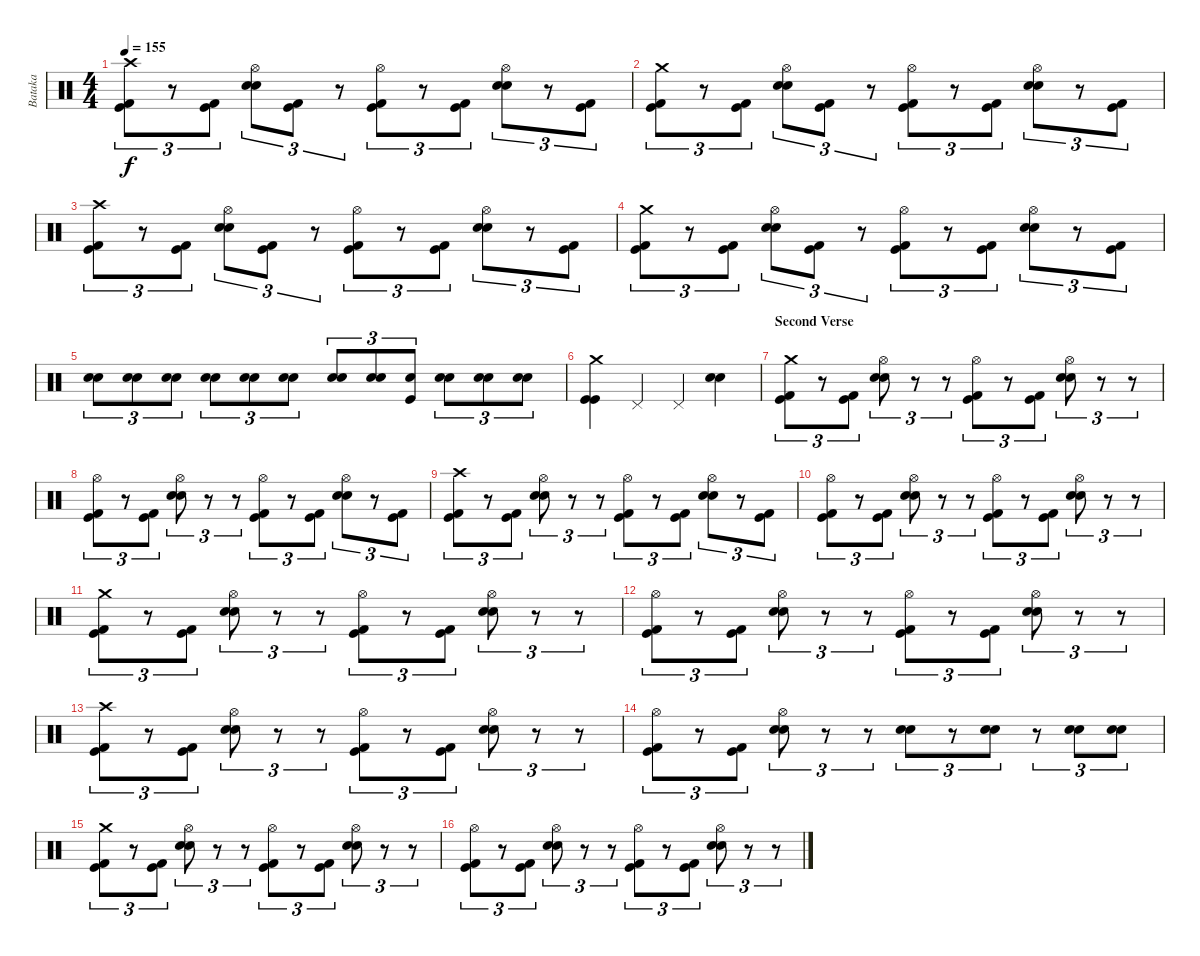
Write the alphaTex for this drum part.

\track ("Bataka" "Bataka") {instrument percussion}
\staff {score}
\articulation defaults
\ts (4 4)
\tempo 155
\clef neutral
\ks c
("Crash high (hit)" "Kick (hit) 2" "Kick (hit)").8{tu (3 2) dy f} r.8{tu (3 2)} ("Kick (hit) 2" "Kick (hit)").8{tu (3 2)} ("Hi-Hat (open)" "Snare (hit) 2" "Snare (hit) 2").8{tu (3 2)} ("Kick (hit) 2" "Kick (hit)").8{tu (3 2)} r.8{tu (3 2)} ("Hi-Hat (open)" "Kick (hit) 2" "Kick (hit)").8{tu (3 2)} r.8{tu (3 2)} ("Kick (hit) 2" "Kick (hit)").8{tu (3 2)} ("Hi-Hat (open)" "Snare (hit) 2" "Snare (hit) 2").8{tu (3 2)} r.8{tu (3 2)} ("Kick (hit) 2" "Kick (hit)").8{tu (3 2)} |
("Crash medium (hit)" "Kick (hit) 2" "Kick (hit)").8{tu (3 2)} r.8{tu (3 2)} ("Kick (hit) 2" "Kick (hit)").8{tu (3 2)} ("Hi-Hat (open)" "Snare (hit) 2" "Snare (hit) 2").8{tu (3 2)} ("Kick (hit) 2" "Kick (hit)").8{tu (3 2)} r.8{tu (3 2)} ("Hi-Hat (open)" "Kick (hit) 2" "Kick (hit)").8{tu (3 2)} r.8{tu (3 2)} ("Kick (hit) 2" "Kick (hit)").8{tu (3 2)} ("Hi-Hat (open)" "Snare (hit) 2" "Snare (hit) 2").8{tu (3 2)} r.8{tu (3 2)} ("Kick (hit) 2" "Kick (hit)").8{tu (3 2)} |
("Crash high (hit)" "Kick (hit) 2" "Kick (hit)").8{tu (3 2)} r.8{tu (3 2)} ("Kick (hit) 2" "Kick (hit)").8{tu (3 2)} ("Hi-Hat (open)" "Snare (hit) 2" "Snare (hit) 2").8{tu (3 2)} ("Kick (hit) 2" "Kick (hit)").8{tu (3 2)} r.8{tu (3 2)} ("Hi-Hat (open)" "Kick (hit) 2" "Kick (hit)").8{tu (3 2)} r.8{tu (3 2)} ("Kick (hit) 2" "Kick (hit)").8{tu (3 2)} ("Hi-Hat (open)" "Snare (hit) 2" "Snare (hit) 2").8{tu (3 2)} r.8{tu (3 2)} ("Kick (hit) 2" "Kick (hit)").8{tu (3 2)} |
("Crash medium (hit)" "Kick (hit) 2" "Kick (hit)").8{tu (3 2)} r.8{tu (3 2)} ("Kick (hit) 2" "Kick (hit)").8{tu (3 2)} ("Hi-Hat (open)" "Snare (hit) 2" "Snare (hit) 2").8{tu (3 2)} ("Kick (hit) 2" "Kick (hit)").8{tu (3 2)} r.8{tu (3 2)} ("Hi-Hat (open)" "Kick (hit) 2" "Kick (hit)").8{tu (3 2)} r.8{tu (3 2)} ("Kick (hit) 2" "Kick (hit)").8{tu (3 2)} ("Hi-Hat (open)" "Snare (hit) 2" "Snare (hit) 2").8{tu (3 2)} r.8{tu (3 2)} ("Kick (hit) 2" "Kick (hit)").8{tu (3 2)} |
("Snare (hit) 2" "Snare (hit) 2").8{tu (3 2)} ("Snare (hit) 2" "Snare (hit) 2").8{tu (3 2)} ("Snare (hit) 2" "Snare (hit) 2").8{tu (3 2)} ("Snare (hit) 2" "Snare (hit) 2").8{tu (3 2)} ("Snare (hit) 2" "Snare (hit) 2").8{tu (3 2)} ("Snare (hit) 2" "Snare (hit) 2").8{tu (3 2)} ("Snare (hit) 2" "Snare (hit) 2").8{tu (3 2)} ("Snare (hit) 2" "Snare (hit) 2").8{tu (3 2)} ("Snare (hit) 2" "Kick (hit)").8{tu (3 2)} ("Snare (hit) 2" "Snare (hit) 2").8{tu (3 2)} ("Snare (hit) 2" "Snare (hit) 2").8{tu (3 2)} ("Snare (hit) 2" "Snare (hit) 2").8{tu (3 2)} |
("Crash medium (hit)" "Kick (hit)" "Kick (hit)").4 "Pedal Hi-Hat (hit)".4 "Pedal Hi-Hat (hit)".4 ("Snare (hit) 2" "Snare (hit) 2").4 |
\section ("" "Second Verse")
("Crash medium (hit)" "Kick (hit) 2" "Kick (hit)").8{tu (3 2)} r.8{tu (3 2)} ("Kick (hit) 2" "Kick (hit)").8{tu (3 2)} ("Hi-Hat (open)" "Snare (hit) 2" "Snare (hit) 2").8{tu (3 2)} r.8{tu (3 2)} r.8{tu (3 2)} ("Hi-Hat (open)" "Kick (hit) 2" "Kick (hit)").8{tu (3 2)} r.8{tu (3 2)} ("Kick (hit) 2" "Kick (hit)").8{tu (3 2)} ("Hi-Hat (open)" "Snare (hit) 2" "Snare (hit) 2").8{tu (3 2)} r.8{tu (3 2)} r.8{tu (3 2)} |
("Hi-Hat (open)" "Kick (hit) 2" "Kick (hit)").8{tu (3 2)} r.8{tu (3 2)} ("Kick (hit) 2" "Kick (hit)").8{tu (3 2)} ("Hi-Hat (open)" "Snare (hit) 2" "Snare (hit) 2").8{tu (3 2)} r.8{tu (3 2)} r.8{tu (3 2)} ("Hi-Hat (open)" "Kick (hit) 2" "Kick (hit)").8{tu (3 2)} r.8{tu (3 2)} ("Kick (hit) 2" "Kick (hit)").8{tu (3 2)} ("Hi-Hat (open)" "Snare (hit) 2" "Snare (hit) 2").8{tu (3 2)} r.8{tu (3 2)} ("Kick (hit) 2" "Kick (hit)").8{tu (3 2)} |
("Crash high (hit)" "Kick (hit) 2" "Kick (hit)").8{tu (3 2)} r.8{tu (3 2)} ("Kick (hit) 2" "Kick (hit)").8{tu (3 2)} ("Hi-Hat (open)" "Snare (hit) 2" "Snare (hit) 2").8{tu (3 2)} r.8{tu (3 2)} r.8{tu (3 2)} ("Hi-Hat (open)" "Kick (hit) 2" "Kick (hit)").8{tu (3 2)} r.8{tu (3 2)} ("Kick (hit) 2" "Kick (hit)").8{tu (3 2)} ("Hi-Hat (open)" "Snare (hit) 2" "Snare (hit) 2").8{tu (3 2)} r.8{tu (3 2)} ("Kick (hit) 2" "Kick (hit)").8{tu (3 2)} |
("Hi-Hat (open)" "Kick (hit) 2" "Kick (hit)").8{tu (3 2)} r.8{tu (3 2)} ("Kick (hit) 2" "Kick (hit)").8{tu (3 2)} ("Hi-Hat (open)" "Snare (hit) 2" "Snare (hit) 2").8{tu (3 2)} r.8{tu (3 2)} r.8{tu (3 2)} ("Hi-Hat (open)" "Kick (hit) 2" "Kick (hit)").8{tu (3 2)} r.8{tu (3 2)} ("Kick (hit) 2" "Kick (hit)").8{tu (3 2)} ("Hi-Hat (open)" "Snare (hit) 2" "Snare (hit) 2").8{tu (3 2)} r.8{tu (3 2)} r.8{tu (3 2)} |
("Crash medium (hit)" "Kick (hit) 2" "Kick (hit)").8{tu (3 2)} r.8{tu (3 2)} ("Kick (hit) 2" "Kick (hit)").8{tu (3 2)} ("Hi-Hat (open)" "Snare (hit) 2" "Snare (hit) 2").8{tu (3 2)} r.8{tu (3 2)} r.8{tu (3 2)} ("Hi-Hat (open)" "Kick (hit) 2" "Kick (hit)").8{tu (3 2)} r.8{tu (3 2)} ("Kick (hit) 2" "Kick (hit)").8{tu (3 2)} ("Hi-Hat (open)" "Snare (hit) 2" "Snare (hit) 2").8{tu (3 2)} r.8{tu (3 2)} r.8{tu (3 2)} |
("Hi-Hat (open)" "Kick (hit) 2" "Kick (hit)").8{tu (3 2)} r.8{tu (3 2)} ("Kick (hit) 2" "Kick (hit)").8{tu (3 2)} ("Hi-Hat (open)" "Snare (hit) 2" "Snare (hit) 2").8{tu (3 2)} r.8{tu (3 2)} r.8{tu (3 2)} ("Hi-Hat (open)" "Kick (hit) 2" "Kick (hit)").8{tu (3 2)} r.8{tu (3 2)} ("Kick (hit) 2" "Kick (hit)").8{tu (3 2)} ("Hi-Hat (open)" "Snare (hit) 2" "Snare (hit) 2").8{tu (3 2)} r.8{tu (3 2)} r.8{tu (3 2)} |
("Crash high (hit)" "Kick (hit) 2" "Kick (hit)").8{tu (3 2)} r.8{tu (3 2)} ("Kick (hit) 2" "Kick (hit)").8{tu (3 2)} ("Hi-Hat (open)" "Snare (hit) 2" "Snare (hit) 2").8{tu (3 2)} r.8{tu (3 2)} r.8{tu (3 2)} ("Hi-Hat (open)" "Kick (hit) 2" "Kick (hit)").8{tu (3 2)} r.8{tu (3 2)} ("Kick (hit) 2" "Kick (hit)").8{tu (3 2)} ("Hi-Hat (open)" "Snare (hit) 2" "Snare (hit) 2").8{tu (3 2)} r.8{tu (3 2)} r.8{tu (3 2)} |
("Hi-Hat (open)" "Kick (hit) 2" "Kick (hit)").8{tu (3 2)} r.8{tu (3 2)} ("Kick (hit) 2" "Kick (hit)").8{tu (3 2)} ("Hi-Hat (open)" "Snare (hit) 2" "Snare (hit) 2").8{tu (3 2)} r.8{tu (3 2)} r.8{tu (3 2)} ("Snare (hit) 2" "Snare (hit) 2").8{tu (3 2)} r.8{tu (3 2)} ("Snare (hit) 2" "Snare (hit) 2").8{tu (3 2)} r.8{tu (3 2)} ("Snare (hit) 2" "Snare (hit) 2").8{tu (3 2)} ("Snare (hit) 2" "Snare (hit) 2").8{tu (3 2)} |
("Crash medium (hit)" "Kick (hit) 2" "Kick (hit)").8{tu (3 2)} r.8{tu (3 2)} ("Kick (hit) 2" "Kick (hit)").8{tu (3 2)} ("Hi-Hat (open)" "Snare (hit) 2" "Snare (hit) 2").8{tu (3 2)} r.8{tu (3 2)} r.8{tu (3 2)} ("Hi-Hat (open)" "Kick (hit) 2" "Kick (hit)").8{tu (3 2)} r.8{tu (3 2)} ("Kick (hit) 2" "Kick (hit)").8{tu (3 2)} ("Hi-Hat (open)" "Snare (hit) 2" "Snare (hit) 2").8{tu (3 2)} r.8{tu (3 2)} r.8{tu (3 2)} |
("Hi-Hat (open)" "Kick (hit) 2" "Kick (hit)").8{tu (3 2)} r.8{tu (3 2)} ("Kick (hit) 2" "Kick (hit)").8{tu (3 2)} ("Hi-Hat (open)" "Snare (hit) 2" "Snare (hit) 2").8{tu (3 2)} r.8{tu (3 2)} r.8{tu (3 2)} ("Hi-Hat (open)" "Kick (hit) 2" "Kick (hit)").8{tu (3 2)} r.8{tu (3 2)} ("Kick (hit) 2" "Kick (hit)").8{tu (3 2)} ("Hi-Hat (open)" "Snare (hit) 2" "Snare (hit) 2").8{tu (3 2)} r.8{tu (3 2)} r.8{tu (3 2)}
